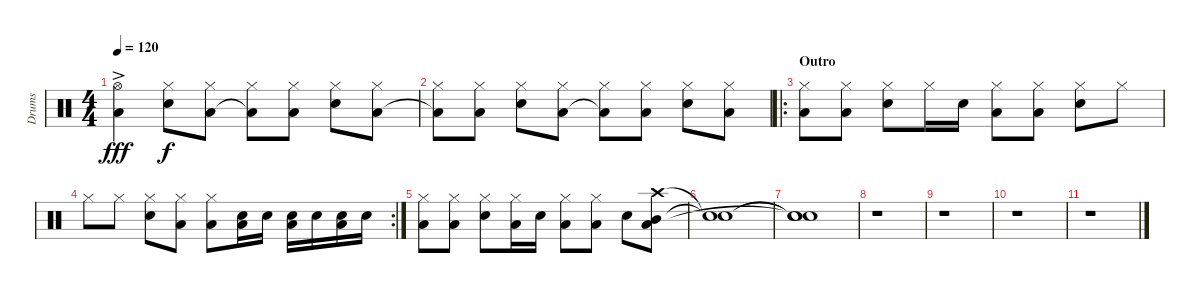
\track ("Drums" "Drums") {instrument percussion}
\staff {score}
\articulation defaults
\ts (4 4)
\tempo 120
\clef neutral
\ks c
("Hi-Hat (open)"{ac} "Low Floor Tom (hit)"{ac}).4{dy fff} ("Hi-Hat (closed)" "Snare (hit) 2").8{dy f} ("Hi-Hat (closed)" "Low Floor Tom (hit)").8 ("Hi-Hat (closed)" "Low Floor Tom (hit)"{t}).8 ("Hi-Hat (closed)" "Low Floor Tom (hit)").8 ("Hi-Hat (closed)" "Snare (hit) 2").8 ("Hi-Hat (closed)" "Low Floor Tom (hit)").8 |
("Hi-Hat (closed)" "Low Floor Tom (hit)"{t}).8 ("Hi-Hat (closed)" "Low Floor Tom (hit)").8 ("Hi-Hat (closed)" "Snare (hit) 2").8 ("Hi-Hat (closed)" "Low Floor Tom (hit)").8 ("Hi-Hat (closed)" "Low Floor Tom (hit)"{t}).8 ("Hi-Hat (closed)" "Low Floor Tom (hit)").8 ("Hi-Hat (closed)" "Snare (hit) 2").8 ("Hi-Hat (closed)" "Low Floor Tom (hit)").8 |
\ro
\section ("" "Outro")
("Hi-Hat (closed)" "Low Floor Tom (hit)").8 ("Hi-Hat (closed)" "Low Floor Tom (hit)").8 ("Hi-Hat (closed)" "Snare (hit) 2").8 "Hi-Hat (closed)".16 "Snare (hit) 2".16 ("Hi-Hat (closed)" "Low Floor Tom (hit)").8 ("Hi-Hat (closed)" "Low Floor Tom (hit)").8 ("Hi-Hat (closed)" "Snare (hit) 2").8 "Hi-Hat (closed)".8 |
\rc 2 "Hi-Hat (closed)".8 "Hi-Hat (closed)".8
("Hi-Hat (closed)" "Snare (hit) 2").8 ("Hi-Hat (closed)" "Low Floor Tom (hit)").8 ("Hi-Hat (closed)" "Low Floor Tom (hit)").8 ("Low Floor Tom (hit)" "Snare (hit) 2").16 "Snare (hit) 2".16 ("Low Floor Tom (hit)" "Snare (hit) 2").16 "Snare (hit) 2".16 ("Low Floor Tom (hit)" "Snare (hit) 2").16 "Snare (hit) 2".16 |
("Hi-Hat (closed)" "Low Floor Tom (hit)").8 ("Hi-Hat (closed)" "Low Floor Tom (hit)").8 ("Hi-Hat (closed)" "Snare (hit) 2").8 ("Hi-Hat (closed)" "Low Floor Tom (hit)").16 "Snare (hit) 2".16 ("Hi-Hat (closed)" "Low Floor Tom (hit)").8 ("Hi-Hat (closed)" "Low Floor Tom (hit)").8 "Snare (hit) 2".8 ("Mid Tom (hit)" "Crash high (hit)" "Low Floor Tom (hit)").8 |
("Snare (hit)"{t} "Snare (hit)"{t}).1 |
("Snare (hit)"{t} "Snare (hit)"{t} "Snare (hit)"{t}).1 |
r.1 |
r.1 |
r.1 |
r.1
